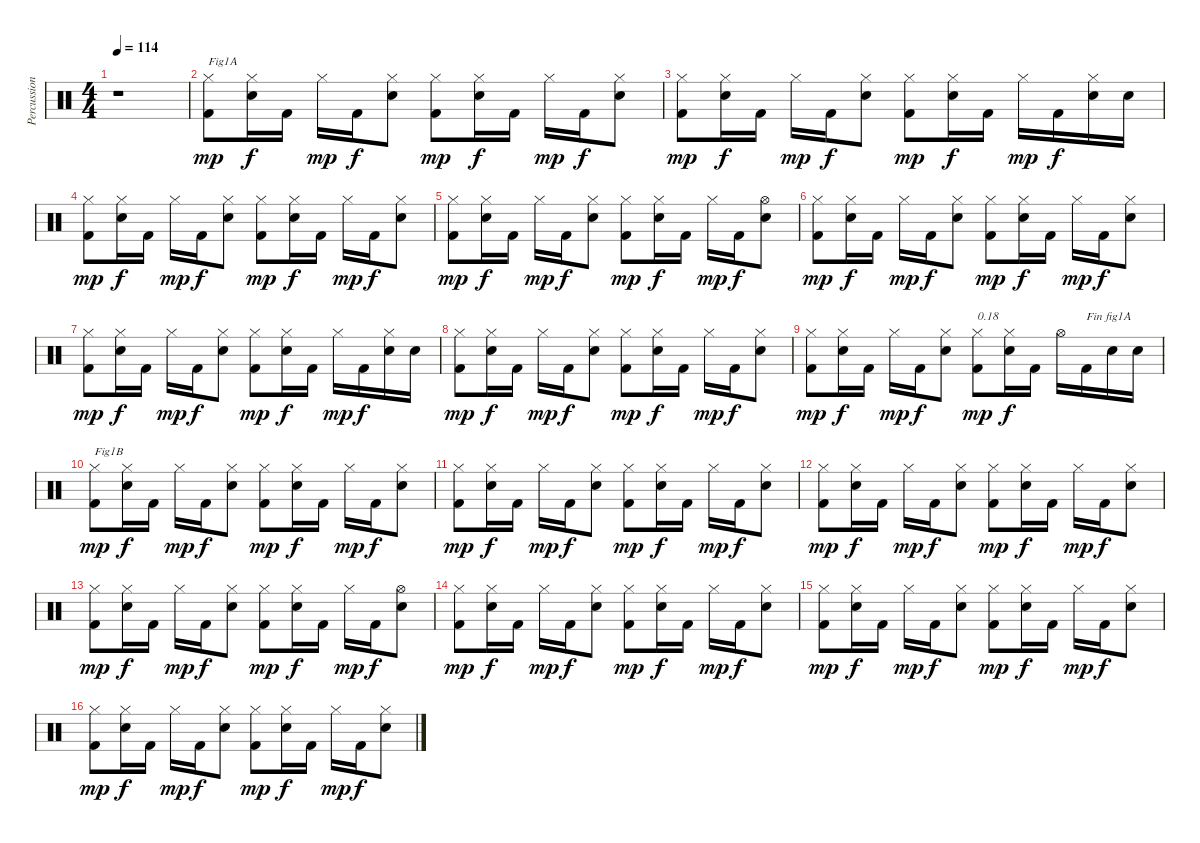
\track ("Percussions" "Percussion") {instrument percussion}
\staff {score}
\articulation defaults
\ts (4 4)
\tempo 114
\clef neutral
\ks c
r.1{dy mp} |
("Kick (hit) 2" "Hi-Hat (closed)").8{txt "Fig1A"} ("Electric Snare (hit)" "Hi-Hat (closed)").16{dy f} "Kick (hit) 2".16 "Hi-Hat (closed)".16{dy mp} "Kick (hit) 2".16{dy f} ("Electric Snare (hit)" "Hi-Hat (closed)").8 ("Kick (hit) 2" "Hi-Hat (closed)").8{dy mp} ("Electric Snare (hit)" "Hi-Hat (closed)").16{dy f} "Kick (hit) 2".16 "Hi-Hat (closed)".16{dy mp} "Kick (hit) 2".16{dy f} ("Electric Snare (hit)" "Hi-Hat (closed)").8 |
("Kick (hit) 2" "Hi-Hat (closed)").8{dy mp} ("Electric Snare (hit)" "Hi-Hat (closed)").16{dy f} "Kick (hit) 2".16 "Hi-Hat (closed)".16{dy mp} "Kick (hit) 2".16{dy f} ("Electric Snare (hit)" "Hi-Hat (closed)").8 ("Kick (hit) 2" "Hi-Hat (closed)").8{dy mp} ("Electric Snare (hit)" "Hi-Hat (closed)").16{dy f} "Kick (hit) 2".16 "Hi-Hat (closed)".16{dy mp} "Kick (hit) 2".16{dy f} ("Electric Snare (hit)" "Hi-Hat (closed)").16 "Electric Snare (hit)".16 |
("Kick (hit) 2" "Hi-Hat (closed)").8{dy mp} ("Electric Snare (hit)" "Hi-Hat (closed)").16{dy f} "Kick (hit) 2".16 "Hi-Hat (closed)".16{dy mp} "Kick (hit) 2".16{dy f} ("Electric Snare (hit)" "Hi-Hat (closed)").8 ("Kick (hit) 2" "Hi-Hat (closed)").8{dy mp} ("Electric Snare (hit)" "Hi-Hat (closed)").16{dy f} "Kick (hit) 2".16 "Hi-Hat (closed)".16{dy mp} "Kick (hit) 2".16{dy f} ("Electric Snare (hit)" "Hi-Hat (closed)").8 |
("Kick (hit) 2" "Hi-Hat (closed)").8{dy mp} ("Electric Snare (hit)" "Hi-Hat (closed)").16{dy f} "Kick (hit) 2".16 "Hi-Hat (closed)".16{dy mp} "Kick (hit) 2".16{dy f} ("Electric Snare (hit)" "Hi-Hat (closed)").8 ("Kick (hit) 2" "Hi-Hat (closed)").8{dy mp} ("Electric Snare (hit)" "Hi-Hat (closed)").16{dy f} "Kick (hit) 2".16 "Hi-Hat (closed)".16{dy mp} "Kick (hit) 2".16{dy f} ("Electric Snare (hit)" "Hi-Hat (open)").8 |
("Kick (hit) 2" "Hi-Hat (closed)").8{dy mp} ("Electric Snare (hit)" "Hi-Hat (closed)").16{dy f} "Kick (hit) 2".16 "Hi-Hat (closed)".16{dy mp} "Kick (hit) 2".16{dy f} ("Electric Snare (hit)" "Hi-Hat (closed)").8 ("Kick (hit) 2" "Hi-Hat (closed)").8{dy mp} ("Electric Snare (hit)" "Hi-Hat (closed)").16{dy f} "Kick (hit) 2".16 "Hi-Hat (closed)".16{dy mp} "Kick (hit) 2".16{dy f} ("Electric Snare (hit)" "Hi-Hat (closed)").8 |
("Kick (hit) 2" "Hi-Hat (closed)").8{dy mp} ("Electric Snare (hit)" "Hi-Hat (closed)").16{dy f} "Kick (hit) 2".16 "Hi-Hat (closed)".16{dy mp} "Kick (hit) 2".16{dy f} ("Electric Snare (hit)" "Hi-Hat (closed)").8 ("Kick (hit) 2" "Hi-Hat (closed)").8{dy mp} ("Electric Snare (hit)" "Hi-Hat (closed)").16{dy f} "Kick (hit) 2".16 "Hi-Hat (closed)".16{dy mp} "Kick (hit) 2".16{dy f} ("Electric Snare (hit)" "Hi-Hat (closed)").16 "Electric Snare (hit)".16 |
("Kick (hit) 2" "Hi-Hat (closed)").8{dy mp} ("Electric Snare (hit)" "Hi-Hat (closed)").16{dy f} "Kick (hit) 2".16 "Hi-Hat (closed)".16{dy mp} "Kick (hit) 2".16{dy f} ("Electric Snare (hit)" "Hi-Hat (closed)").8 ("Kick (hit) 2" "Hi-Hat (closed)").8{dy mp} ("Electric Snare (hit)" "Hi-Hat (closed)").16{dy f} "Kick (hit) 2".16 "Hi-Hat (closed)".16{dy mp} "Kick (hit) 2".16{dy f} ("Electric Snare (hit)" "Hi-Hat (closed)").8 |
("Kick (hit) 2" "Hi-Hat (closed)").8{dy mp} ("Electric Snare (hit)" "Hi-Hat (closed)").16{dy f} "Kick (hit) 2".16 "Hi-Hat (closed)".16{dy mp} "Kick (hit) 2".16{dy f} ("Electric Snare (hit)" "Hi-Hat (closed)").8 ("Kick (hit) 2" "Hi-Hat (closed)").8{txt "0.18" dy mp} ("Electric Snare (hit)" "Hi-Hat (closed)").16{dy f} "Kick (hit) 2".16 "Hi-Hat (open)".16 "Kick (hit) 2".16{txt "Fin fig1A"} "Electric Snare (hit)".16 "Electric Snare (hit)".16 |
("Kick (hit) 2" "Hi-Hat (closed)").8{txt "Fig1B" dy mp} ("Electric Snare (hit)" "Hi-Hat (closed)").16{dy f} "Kick (hit) 2".16 "Hi-Hat (closed)".16{dy mp} "Kick (hit) 2".16{dy f} ("Electric Snare (hit)" "Hi-Hat (closed)").8 ("Kick (hit) 2" "Hi-Hat (closed)").8{dy mp} ("Electric Snare (hit)" "Hi-Hat (closed)").16{dy f} "Kick (hit) 2".16 "Hi-Hat (closed)".16{dy mp} "Kick (hit) 2".16{dy f} ("Electric Snare (hit)" "Hi-Hat (closed)").8 |
("Kick (hit) 2" "Hi-Hat (closed)").8{dy mp} ("Electric Snare (hit)" "Hi-Hat (closed)").16{dy f} "Kick (hit) 2".16 "Hi-Hat (closed)".16{dy mp} "Kick (hit) 2".16{dy f} ("Electric Snare (hit)" "Hi-Hat (closed)").8 ("Kick (hit) 2" "Hi-Hat (closed)").8{dy mp} ("Electric Snare (hit)" "Hi-Hat (closed)").16{dy f} "Kick (hit) 2".16 "Hi-Hat (closed)".16{dy mp} "Kick (hit) 2".16{dy f} ("Electric Snare (hit)" "Hi-Hat (closed)").8 |
("Kick (hit) 2" "Hi-Hat (closed)").8{dy mp} ("Electric Snare (hit)" "Hi-Hat (closed)").16{dy f} "Kick (hit) 2".16 "Hi-Hat (closed)".16{dy mp} "Kick (hit) 2".16{dy f} ("Electric Snare (hit)" "Hi-Hat (closed)").8 ("Kick (hit) 2" "Hi-Hat (closed)").8{dy mp} ("Electric Snare (hit)" "Hi-Hat (closed)").16{dy f} "Kick (hit) 2".16 "Hi-Hat (closed)".16{dy mp} "Kick (hit) 2".16{dy f} ("Electric Snare (hit)" "Hi-Hat (closed)").8 |
("Kick (hit) 2" "Hi-Hat (closed)").8{dy mp} ("Electric Snare (hit)" "Hi-Hat (closed)").16{dy f} "Kick (hit) 2".16 "Hi-Hat (closed)".16{dy mp} "Kick (hit) 2".16{dy f} ("Electric Snare (hit)" "Hi-Hat (closed)").8 ("Kick (hit) 2" "Hi-Hat (closed)").8{dy mp} ("Electric Snare (hit)" "Hi-Hat (closed)").16{dy f} "Kick (hit) 2".16 "Hi-Hat (closed)".16{dy mp} "Kick (hit) 2".16{dy f} ("Electric Snare (hit)" "Hi-Hat (open)").8 |
("Kick (hit) 2" "Hi-Hat (closed)").8{dy mp} ("Electric Snare (hit)" "Hi-Hat (closed)").16{dy f} "Kick (hit) 2".16 "Hi-Hat (closed)".16{dy mp} "Kick (hit) 2".16{dy f} ("Electric Snare (hit)" "Hi-Hat (closed)").8 ("Kick (hit) 2" "Hi-Hat (closed)").8{dy mp} ("Electric Snare (hit)" "Hi-Hat (closed)").16{dy f} "Kick (hit) 2".16 "Hi-Hat (closed)".16{dy mp} "Kick (hit) 2".16{dy f} ("Electric Snare (hit)" "Hi-Hat (closed)").8 |
("Kick (hit) 2" "Hi-Hat (closed)").8{dy mp} ("Electric Snare (hit)" "Hi-Hat (closed)").16{dy f} "Kick (hit) 2".16 "Hi-Hat (closed)".16{dy mp} "Kick (hit) 2".16{dy f} ("Electric Snare (hit)" "Hi-Hat (closed)").8 ("Kick (hit) 2" "Hi-Hat (closed)").8{dy mp} ("Electric Snare (hit)" "Hi-Hat (closed)").16{dy f} "Kick (hit) 2".16 "Hi-Hat (closed)".16{dy mp} "Kick (hit) 2".16{dy f} ("Electric Snare (hit)" "Hi-Hat (closed)").8 |
("Kick (hit) 2" "Hi-Hat (closed)").8{dy mp} ("Electric Snare (hit)" "Hi-Hat (closed)").16{dy f} "Kick (hit) 2".16 "Hi-Hat (closed)".16{dy mp} "Kick (hit) 2".16{dy f} ("Electric Snare (hit)" "Hi-Hat (closed)").8 ("Kick (hit) 2" "Hi-Hat (closed)").8{dy mp} ("Electric Snare (hit)" "Hi-Hat (closed)").16{dy f} "Kick (hit) 2".16 "Hi-Hat (closed)".16{dy mp} "Kick (hit) 2".16{dy f} ("Electric Snare (hit)" "Hi-Hat (closed)").8
